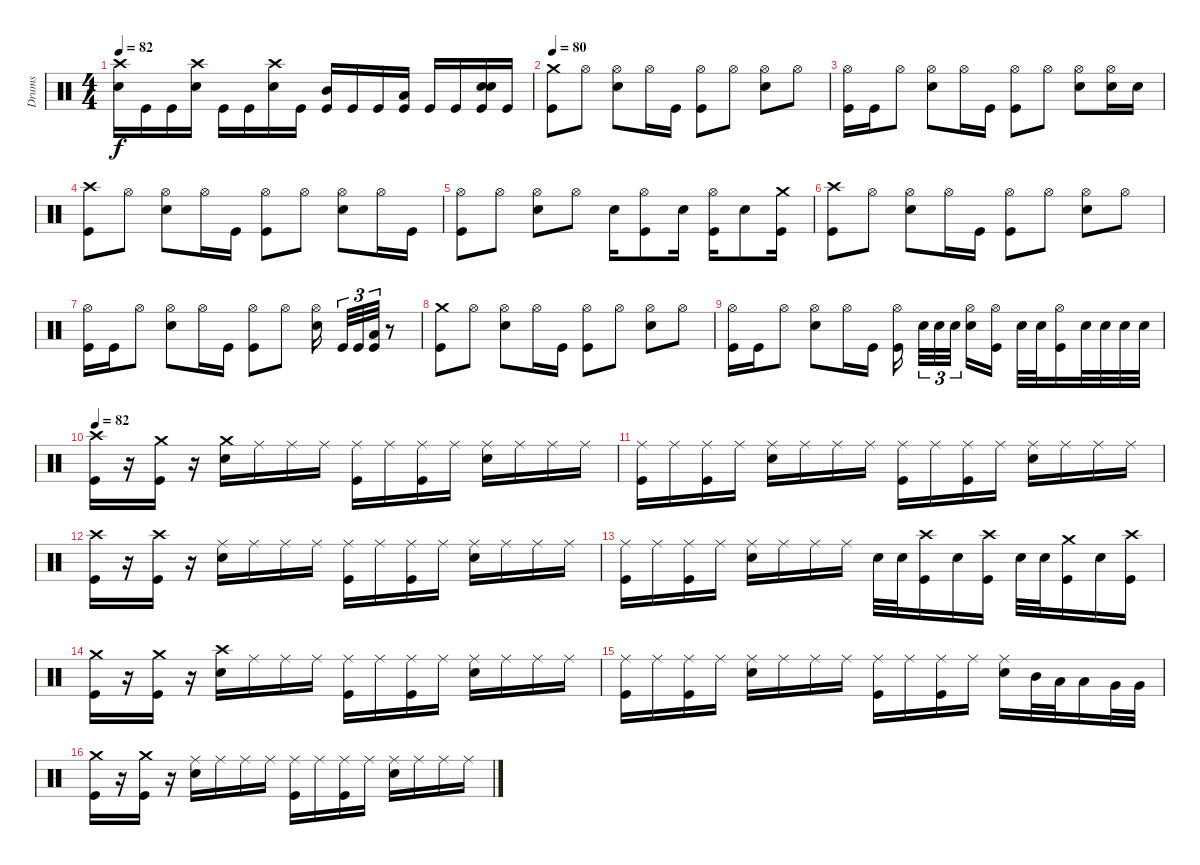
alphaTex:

\track ("Drums" "Drums") {instrument percussion}
\staff {score}
\articulation defaults
\ts (4 4)
\tempo 82
\clef neutral
\ks c
("Crash high (hit)" "Snare (hit) 2").16{dy f} "Kick (hit)".16 "Kick (hit)".16 ("Crash high (hit)" "Snare (hit) 2").16 "Kick (hit)".16 "Kick (hit)".16 ("Crash high (hit)" "Snare (hit) 2").16 "Kick (hit)".16 ("Mid Tom (hit)" "Kick (hit)").16 "Kick (hit)".16 "Kick (hit)".16 ("Low Tom (hit)" "Kick (hit)").16 "Kick (hit)".16 "Kick (hit)".16 ("Snare (hit) 2" "Snare (hit) 2" "Kick (hit)").16 "Kick (hit)".16 |
\tempo 80
("Crash medium (hit)" "Kick (hit)").8 "Hi-Hat (open)".8 ("Hi-Hat (open)" "Snare (hit) 2").8 "Hi-Hat (open)".16 "Kick (hit)".16 ("Hi-Hat (open)" "Kick (hit)").8 "Hi-Hat (open)".8 ("Hi-Hat (open)" "Snare (hit) 2").8 "Hi-Hat (open)".8 |
("Hi-Hat (open)" "Kick (hit)").16 "Kick (hit)".16 "Hi-Hat (open)".8 ("Hi-Hat (open)" "Snare (hit) 2").8 "Hi-Hat (open)".16 "Kick (hit)".16 ("Hi-Hat (open)" "Kick (hit)").8 "Hi-Hat (open)".8 ("Hi-Hat (open)" "Snare (hit) 2").8 ("Hi-Hat (open)" "Snare (hit) 2").16 "Snare (hit) 2".16 |
("Crash high (hit)" "Kick (hit)").8 "Hi-Hat (open)".8 ("Hi-Hat (open)" "Snare (hit) 2").8 "Hi-Hat (open)".16 "Kick (hit)".16 ("Hi-Hat (open)" "Kick (hit)").8 "Hi-Hat (open)".8 ("Hi-Hat (open)" "Snare (hit) 2").8 "Hi-Hat (open)".16 "Kick (hit)".16 |
("Hi-Hat (open)" "Kick (hit)").8 "Hi-Hat (open)".8 ("Hi-Hat (open)" "Snare (hit) 2").8 "Hi-Hat (open)".8 "Snare (hit) 2".16 ("Hi-Hat (open)" "Kick (hit)").8 "Snare (hit) 2".16 ("Hi-Hat (open)" "Kick (hit)").16 "Snare (hit) 2".8 ("Crash medium (hit)" "Kick (hit)").16 |
("Crash high (hit)" "Kick (hit)").8 "Hi-Hat (open)".8 ("Hi-Hat (open)" "Snare (hit) 2").8 "Hi-Hat (open)".16 "Kick (hit)".16 ("Hi-Hat (open)" "Kick (hit)").8 "Hi-Hat (open)".8 ("Hi-Hat (open)" "Snare (hit) 2").8 "Hi-Hat (open)".8 |
("Hi-Hat (open)" "Kick (hit)").16 "Kick (hit)".16 "Hi-Hat (open)".8 ("Hi-Hat (open)" "Snare (hit) 2").8 "Hi-Hat (open)".16 "Kick (hit)".16 ("Hi-Hat (open)" "Kick (hit)").8 "Hi-Hat (open)".8 ("Hi-Hat (open)" "Snare (hit) 2").16 "Kick (hit)".32{tu (3 2)} "Kick (hit)".32{tu (3 2)} ("Low Tom (hit)" "Kick (hit)").32{tu (3 2)} r.8 |
("Crash medium (hit)" "Kick (hit)").8 "Hi-Hat (open)".8 ("Hi-Hat (open)" "Snare (hit) 2").8 "Hi-Hat (open)".16 "Kick (hit)".16 ("Hi-Hat (open)" "Kick (hit)").8 "Hi-Hat (open)".8 ("Hi-Hat (open)" "Snare (hit) 2").8 "Hi-Hat (open)".8 |
("Hi-Hat (open)" "Kick (hit)").16 "Kick (hit)".16 "Hi-Hat (open)".8 ("Hi-Hat (open)" "Snare (hit) 2").8 "Hi-Hat (open)".16 "Kick (hit)".16 ("Hi-Hat (open)" "Kick (hit)").16 "Snare (hit) 2".32{tu (3 2)} "Snare (hit) 2".32{tu (3 2)} "Snare (hit) 2".32{tu (3 2)} ("Hi-Hat (open)" "Snare (hit) 2").16 ("Hi-Hat (open)" "Kick (hit)").16 "Snare (hit) 2".32 "Snare (hit) 2".32 ("Hi-Hat (open)" "Kick (hit)").16 "Snare (hit) 2".32 "Snare (hit) 2".32 "Snare (hit) 2".32 "Snare (hit) 2".32 |
\tempo 82
("Crash high (hit)" "Kick (hit)").16 r.16 ("Crash medium (hit)" "Kick (hit)").16 r.16 ("Crash medium (hit)" "Snare (hit) 2").16 "Ride (middle)".16 "Ride (middle)".16 "Ride (middle)".16 ("Ride (middle)" "Kick (hit)").16 "Ride (middle)".16 ("Ride (middle)" "Kick (hit)").16 "Ride (middle)".16 ("Ride (middle)" "Snare (hit) 2").16 "Ride (middle)".16 "Ride (middle)".16 "Ride (middle)".16 |
("Ride (middle)" "Kick (hit)").16 "Ride (middle)".16 ("Ride (middle)" "Kick (hit)").16 "Ride (middle)".16 ("Ride (middle)" "Snare (hit) 2").16 "Ride (middle)".16 "Ride (middle)".16 "Ride (middle)".16 ("Ride (middle)" "Kick (hit)").16 "Ride (middle)".16 ("Ride (middle)" "Kick (hit)").16 "Ride (middle)".16 ("Ride (middle)" "Snare (hit) 2").16 "Ride (middle)".16 "Ride (middle)".16 "Ride (middle)".16 |
("Crash high (hit)" "Kick (hit)").16 r.16 ("Crash high (hit)" "Kick (hit)").16 r.16 ("Ride (middle)" "Snare (hit) 2").16 "Ride (middle)".16 "Ride (middle)".16 "Ride (middle)".16 ("Ride (middle)" "Kick (hit)").16 "Ride (middle)".16 ("Ride (middle)" "Kick (hit)").16 "Ride (middle)".16 ("Ride (middle)" "Snare (hit) 2").16 "Ride (middle)".16 "Ride (middle)".16 "Ride (middle)".16 |
("Ride (middle)" "Kick (hit)").16 "Ride (middle)".16 ("Ride (middle)" "Kick (hit)").16 "Ride (middle)".16 ("Ride (middle)" "Snare (hit) 2").16 "Ride (middle)".16 "Ride (middle)".16 "Ride (middle)".16 "Snare (hit) 2".32 "Snare (hit) 2".32 ("Crash high (hit)" "Kick (hit)").16 "Snare (hit) 2".16 ("Crash high (hit)" "Kick (hit)").16 "Snare (hit) 2".32 "Snare (hit) 2".32 ("Crash medium (hit)" "Kick (hit)").16 "Snare (hit) 2".16 ("Crash high (hit)" "Kick (hit)").16 |
("Crash medium (hit)" "Kick (hit)").16 r.16 ("Crash medium (hit)" "Kick (hit)").16 r.16 ("Crash high (hit)" "Snare (hit) 2").16 "Ride (middle)".16 "Ride (middle)".16 "Ride (middle)".16 ("Ride (middle)" "Kick (hit)").16 "Ride (middle)".16 ("Ride (middle)" "Kick (hit)").16 "Ride (middle)".16 ("Ride (middle)" "Snare (hit) 2").16 "Ride (middle)".16 "Ride (middle)".16 "Ride (middle)".16 |
("Ride (middle)" "Kick (hit)").16 "Ride (middle)".16 ("Ride (middle)" "Kick (hit)").16 "Ride (middle)".16 ("Ride (middle)" "Snare (hit) 2").16 "Ride (middle)".16 "Ride (middle)".16 "Ride (middle)".16 ("Ride (middle)" "Kick (hit)").16 "Ride (middle)".16 ("Ride (middle)" "Kick (hit)").16 "Ride (middle)".16 ("Ride (middle)" "Snare (hit) 2").16 "Mid Tom (hit)".32 "Low Tom (hit)".32 "Low Tom (hit)".16 "Very Low Tom (hit)".32 "Very Low Tom (hit)".32 |
("Crash medium (hit)" "Kick (hit)").16 r.16 ("Crash medium (hit)" "Kick (hit)").16 r.16 ("Ride (middle)" "Snare (hit) 2").16 "Ride (middle)".16 "Ride (middle)".16 "Ride (middle)".16 ("Ride (middle)" "Kick (hit)").16 "Ride (middle)".16 ("Ride (middle)" "Kick (hit)").16 "Ride (middle)".16 ("Ride (middle)" "Snare (hit) 2").16 "Ride (middle)".16 "Ride (middle)".16 "Ride (middle)".16
